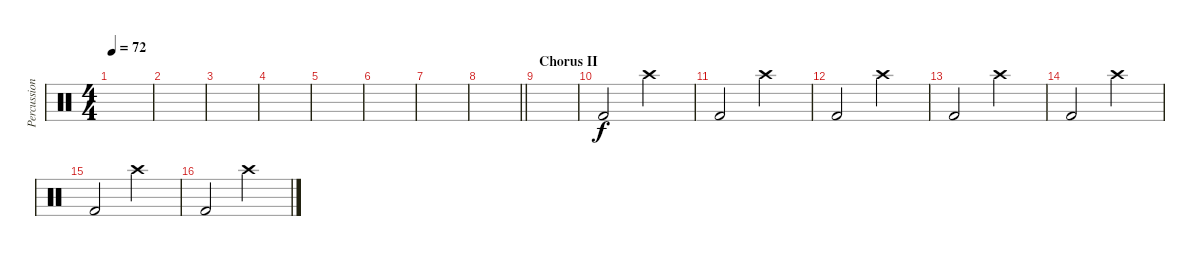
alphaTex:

\track ("Percussion" "Percussion") {instrument percussion}
\staff {score}
\articulation defaults
\ts (4 4)
\tempo 72
\clef neutral
\ks c
|
|
|
|
|
|
|
\barLineRight lightlight
|
\section ("" "Chorus II")
|
"Kick (hit) 2".2 "Crash high (hit)".2 |
"Kick (hit) 2".2 "Crash high (hit)".2 |
"Kick (hit) 2".2 "Crash high (hit)".2 |
"Kick (hit) 2".2 "Crash high (hit)".2 |
"Kick (hit) 2".2 "Crash high (hit)".2 |
"Kick (hit) 2".2 "Crash high (hit)".2 |
"Kick (hit) 2".2 "Crash high (hit)".2
